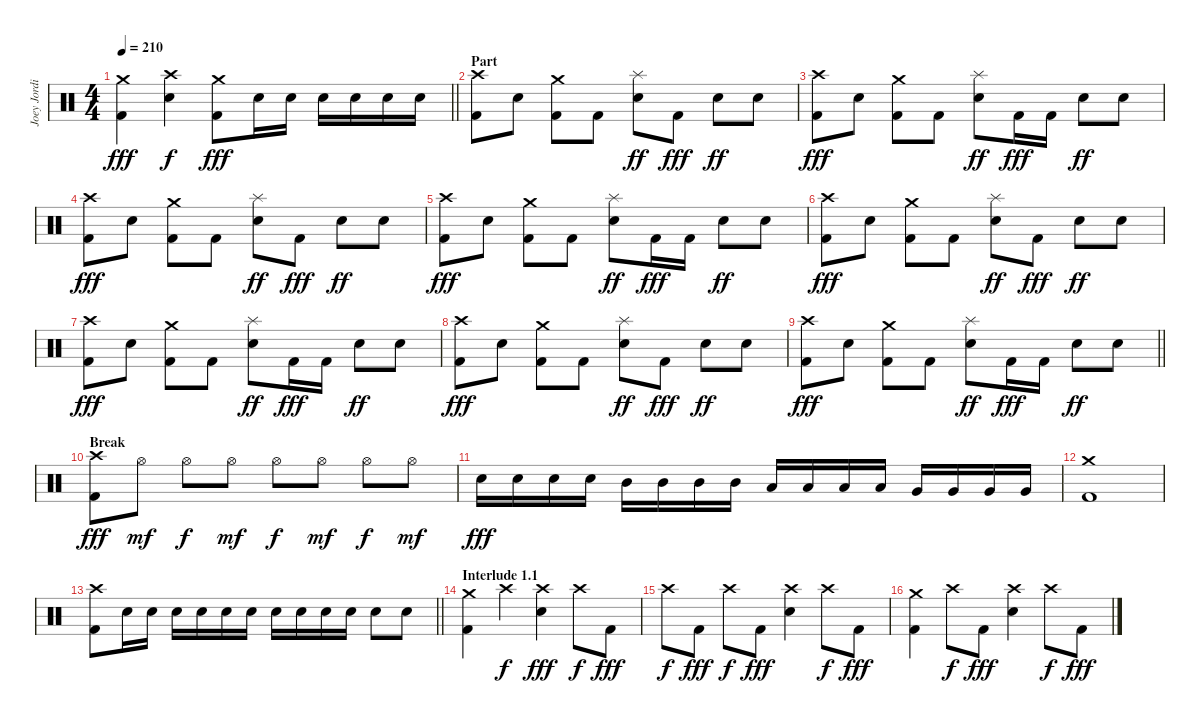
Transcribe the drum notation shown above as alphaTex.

\track ("Joey Jordison" "Joey Jordi") {instrument percussion}
\staff {score}
\articulation defaults
\ts (4 4)
\tempo 210
\clef neutral
\barLineRight lightlight
\ks c
("Crash medium (hit)" "Kick (hit) 2").4{dy fff} ("Crash high (hit)" "Electric Snare (hit)").4{dy f} ("Crash medium (hit)" "Kick (hit) 2").8{dy fff} "Electric Snare (hit)".16 "Electric Snare (hit)".16 "Electric Snare (hit)".16 "Electric Snare (hit)".16 "Electric Snare (hit)".16 "Electric Snare (hit)".16 |
\section ("" "Part")
("Crash high (hit)" "Kick (hit) 2").8 "Electric Snare (hit)".8 ("Crash medium (hit)" "Kick (hit) 2").8 "Kick (hit) 2".8 ("Splash (hit)" "Electric Snare (hit)").8{dy ff} "Kick (hit) 2".8{dy fff} "Electric Snare (hit)".8{dy ff} "Electric Snare (hit)".8 |
("Crash high (hit)" "Kick (hit) 2").8{dy fff} "Electric Snare (hit)".8 ("Crash medium (hit)" "Kick (hit) 2").8 "Kick (hit) 2".8 ("Splash (hit)" "Electric Snare (hit)").8{dy ff} "Kick (hit) 2".16{dy fff} "Kick (hit) 2".16 "Electric Snare (hit)".8{dy ff} "Electric Snare (hit)".8 |
("Crash high (hit)" "Kick (hit) 2").8{dy fff} "Electric Snare (hit)".8 ("Crash medium (hit)" "Kick (hit) 2").8 "Kick (hit) 2".8 ("Splash (hit)" "Electric Snare (hit)").8{dy ff} "Kick (hit) 2".8{dy fff} "Electric Snare (hit)".8{dy ff} "Electric Snare (hit)".8 |
("Crash high (hit)" "Kick (hit) 2").8{dy fff} "Electric Snare (hit)".8 ("Crash medium (hit)" "Kick (hit) 2").8 "Kick (hit) 2".8 ("Splash (hit)" "Electric Snare (hit)").8{dy ff} "Kick (hit) 2".16{dy fff} "Kick (hit) 2".16 "Electric Snare (hit)".8{dy ff} "Electric Snare (hit)".8 |
("Crash high (hit)" "Kick (hit) 2").8{dy fff} "Electric Snare (hit)".8 ("Crash medium (hit)" "Kick (hit) 2").8 "Kick (hit) 2".8 ("Splash (hit)" "Electric Snare (hit)").8{dy ff} "Kick (hit) 2".8{dy fff} "Electric Snare (hit)".8{dy ff} "Electric Snare (hit)".8 |
("Crash high (hit)" "Kick (hit) 2").8{dy fff} "Electric Snare (hit)".8 ("Crash medium (hit)" "Kick (hit) 2").8 "Kick (hit) 2".8 ("Splash (hit)" "Electric Snare (hit)").8{dy ff} "Kick (hit) 2".16{dy fff} "Kick (hit) 2".16 "Electric Snare (hit)".8{dy ff} "Electric Snare (hit)".8 |
("Crash high (hit)" "Kick (hit) 2").8{dy fff} "Electric Snare (hit)".8 ("Crash medium (hit)" "Kick (hit) 2").8 "Kick (hit) 2".8 ("Splash (hit)" "Electric Snare (hit)").8{dy ff} "Kick (hit) 2".8{dy fff} "Electric Snare (hit)".8{dy ff} "Electric Snare (hit)".8 |
\barLineRight lightlight
("Crash high (hit)" "Kick (hit) 2").8{dy fff} "Electric Snare (hit)".8 ("Crash medium (hit)" "Kick (hit) 2").8 "Kick (hit) 2".8 ("Splash (hit)" "Electric Snare (hit)").8{dy ff} "Kick (hit) 2".16{dy fff} "Kick (hit) 2".16 "Electric Snare (hit)".8{dy ff} "Electric Snare (hit)".8 |
\section ("" "Break")
("Crash high (hit)" "Kick (hit) 2").8{dy fff} "Hi-Hat (open)".8{dy mf} "Hi-Hat (open)".8{dy f} "Hi-Hat (open)".8{dy mf} "Hi-Hat (open)".8{dy f} "Hi-Hat (open)".8{dy mf} "Hi-Hat (open)".8{dy f} "Hi-Hat (open)".8{dy mf} |
"Electric Snare (hit)".16{dy fff} "Electric Snare (hit)".16 "Electric Snare (hit)".16 "Electric Snare (hit)".16 "Mid Tom (hit)".16 "Mid Tom (hit)".16 "Mid Tom (hit)".16 "Mid Tom (hit)".16 "Low Tom (hit)".16 "Low Tom (hit)".16 "Low Tom (hit)".16 "Low Tom (hit)".16 "Very Low Tom (hit)".16 "Very Low Tom (hit)".16 "Very Low Tom (hit)".16 "Very Low Tom (hit)".16 |
("Crash medium (hit)" "Kick (hit) 2").1 |
\barLineRight lightlight
("Crash high (hit)" "Kick (hit) 2").8 "Electric Snare (hit)".16 "Electric Snare (hit)".16 "Electric Snare (hit)".16 "Electric Snare (hit)".16 "Electric Snare (hit)".16 "Electric Snare (hit)".16 "Electric Snare (hit)".16 "Electric Snare (hit)".16 "Electric Snare (hit)".16 "Electric Snare (hit)".16 "Electric Snare (hit)".8 "Electric Snare (hit)".8 |
\section ("" "Interlude 1.1")
("Crash medium (hit)" "Kick (hit) 2").4 "Crash high (hit)".4{dy f} ("Crash high (hit)" "Electric Snare (hit)").4{dy fff} "Crash high (hit)".8{dy f} "Kick (hit) 2".8{dy fff} |
"Crash high (hit)".8{dy f} "Kick (hit) 2".8{dy fff} "Crash high (hit)".8{dy f} "Kick (hit) 2".8{dy fff} ("Crash high (hit)" "Electric Snare (hit)").4 "Crash high (hit)".8{dy f} "Kick (hit) 2".8{dy fff} |
("Crash medium (hit)" "Kick (hit) 2").4 "Crash high (hit)".8{dy f} "Kick (hit) 2".8{dy fff} ("Crash high (hit)" "Electric Snare (hit)").4 "Crash high (hit)".8{dy f} "Kick (hit) 2".8{dy fff}
